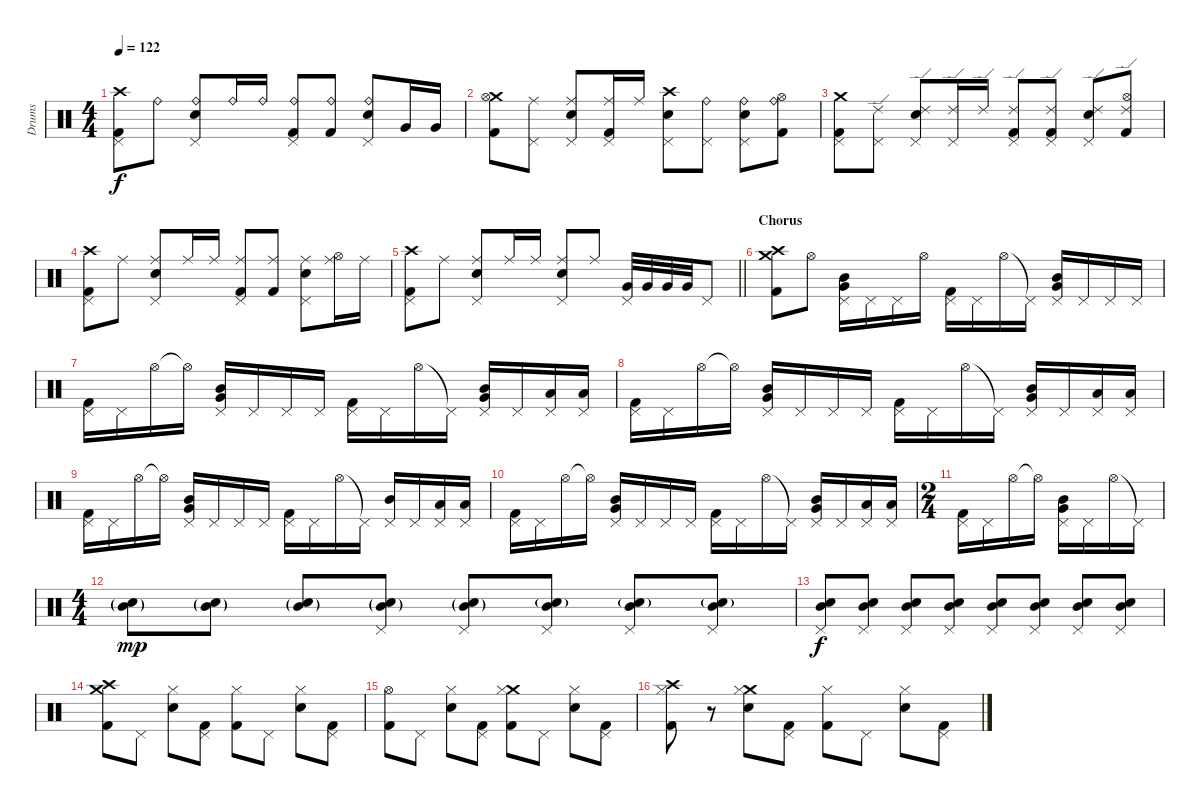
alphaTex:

\track ("Drums" "Drums") {instrument percussion}
\staff {score}
\articulation defaults
\ts (4 4)
\tempo 122
\clef neutral
\ks c
("Crash high (hit)" "Pedal Hi-Hat (hit)" "Kick (hit) 2").8{dy f} "Ride (bell)".8 ("Ride (bell)" "Snare (hit) 2" "Pedal Hi-Hat (hit)").8 "Ride (bell)".16 "Ride (bell)".16 ("Ride (bell)" "Pedal Hi-Hat (hit)" "Kick (hit) 2").8 ("Ride (bell)" "Kick (hit) 2").8 ("Ride (bell)" "Snare (hit) 2" "Pedal Hi-Hat (hit)").8 "Very Low Tom (hit)".16 "Very Low Tom (hit)".16 |
("Crash medium (hit)" "Hi-Hat (open)" "Kick (hit) 2").8 ("Ride (middle)" "Pedal Hi-Hat (hit)").8 ("Ride (middle)" "Snare (hit) 2" "Pedal Hi-Hat (hit)").8 ("Ride (middle)" "Pedal Hi-Hat (hit)" "Kick (hit) 2").16 "Ride (middle)".16 ("Crash high (hit)" "Snare (hit) 2" "Pedal Hi-Hat (hit)").8 ("Ride (bell)" "Pedal Hi-Hat (hit)").8 ("Ride (bell)" "Snare (hit) 2" "Pedal Hi-Hat (hit)").8 ("Ride (bell)" "Hi-Hat (open)" "Kick (hit) 2").8 |
("Crash medium (hit)" "Pedal Hi-Hat (hit)" "Kick (hit) 2").8 ("Ride (edge) 2" "Pedal Hi-Hat (hit)").8 ("Ride (edge) 2" "Snare (hit) 2" "Pedal Hi-Hat (hit)").8 ("Ride (edge) 2" "Pedal Hi-Hat (hit)").16 "Ride (edge) 2".16 ("Ride (edge) 2" "Pedal Hi-Hat (hit)" "Kick (hit) 2").8 ("Ride (edge) 2" "Pedal Hi-Hat (hit)" "Kick (hit) 2").8 ("Ride (edge) 2" "Snare (hit) 2" "Pedal Hi-Hat (hit)").8 ("Ride (edge) 2" "Hi-Hat (open)" "Kick (hit) 2").8 |
("Crash high (hit)" "Pedal Hi-Hat (hit)" "Kick (hit) 2").8 "Ride (middle)".8 ("Ride (middle)" "Snare (hit) 2" "Pedal Hi-Hat (hit)").8 "Ride (middle)".16 "Ride (middle)".16 ("Ride (middle)" "Pedal Hi-Hat (hit)" "Kick (hit) 2").8 ("Ride (middle)" "Kick (hit) 2").8 ("Ride (middle)" "Snare (hit) 2" "Pedal Hi-Hat (hit)").8 ("Ride (middle)" "Hi-Hat (open)").16 "Ride (middle)".16 |
\barLineRight lightlight
("Crash high (hit)" "Pedal Hi-Hat (hit)" "Kick (hit) 2").8 "Ride (middle)".8 ("Ride (middle)" "Snare (hit) 2" "Pedal Hi-Hat (hit)").8 "Ride (middle)".16 "Ride (middle)".16 ("Ride (middle)" "Snare (hit) 2" "Pedal Hi-Hat (hit)").8 "Ride (middle)".8 ("Very Low Tom (hit)" "Pedal Hi-Hat (hit)").32 "Very Low Tom (hit)".32 "Very Low Tom (hit)".32 "Very Low Tom (hit)".32 "Pedal Hi-Hat (hit)".8 |
\section ("" "Chorus")
("Crash medium (hit)" "Crash high (hit)" "Kick (hit) 2").8 "Hi-Hat (open)".8 ("Pedal Hi-Hat (hit)" "Mid Tom (hit)" "Very Low Tom (hit)").16 "Pedal Hi-Hat (hit)".16 "Pedal Hi-Hat (hit)".16 "Hi-Hat (open)".16 ("Pedal Hi-Hat (hit)" "Kick (hit) 2").16 "Pedal Hi-Hat (hit)".16 "Hi-Hat (open)".16 "Pedal Hi-Hat (hit)"{t}.16 ("Pedal Hi-Hat (hit)" "Mid Tom (hit)" "Very Low Tom (hit)").16 "Pedal Hi-Hat (hit)".16 "Pedal Hi-Hat (hit)".16 "Pedal Hi-Hat (hit)".16 |
("Pedal Hi-Hat (hit)" "Kick (hit) 2").16 "Pedal Hi-Hat (hit)".16 "Hi-Hat (open)".16 "Hi-Hat (open)"{t}.16 ("Pedal Hi-Hat (hit)" "Mid Tom (hit)" "Very Low Tom (hit)").16 "Pedal Hi-Hat (hit)".16 "Pedal Hi-Hat (hit)".16 "Pedal Hi-Hat (hit)".16 ("Pedal Hi-Hat (hit)" "Kick (hit) 2").16 "Pedal Hi-Hat (hit)".16 "Hi-Hat (open)".16 "Pedal Hi-Hat (hit)"{t}.16 ("Pedal Hi-Hat (hit)" "Mid Tom (hit)" "Very Low Tom (hit)").16 "Pedal Hi-Hat (hit)".16 ("Pedal Hi-Hat (hit)" "Low Floor Tom (hit)").16 ("Pedal Hi-Hat (hit)" "Low Floor Tom (hit)").16 |
("Pedal Hi-Hat (hit)" "Kick (hit) 2").16 "Pedal Hi-Hat (hit)".16 "Hi-Hat (open)".16 "Hi-Hat (open)"{t}.16 ("Pedal Hi-Hat (hit)" "Mid Tom (hit)" "Very Low Tom (hit)").16 "Pedal Hi-Hat (hit)".16 "Pedal Hi-Hat (hit)".16 "Pedal Hi-Hat (hit)".16 ("Pedal Hi-Hat (hit)" "Kick (hit) 2").16 "Pedal Hi-Hat (hit)".16 "Hi-Hat (open)".16 "Pedal Hi-Hat (hit)"{t}.16 ("Pedal Hi-Hat (hit)" "Mid Tom (hit)" "Very Low Tom (hit)").16 "Pedal Hi-Hat (hit)".16 ("Pedal Hi-Hat (hit)" "Low Floor Tom (hit)").16 ("Pedal Hi-Hat (hit)" "Low Floor Tom (hit)").16 |
("Pedal Hi-Hat (hit)" "Kick (hit) 2").16 "Pedal Hi-Hat (hit)".16 "Hi-Hat (open)".16 "Hi-Hat (open)"{t}.16 ("Pedal Hi-Hat (hit)" "Mid Tom (hit)" "Very Low Tom (hit)").16 "Pedal Hi-Hat (hit)".16 "Pedal Hi-Hat (hit)".16 "Pedal Hi-Hat (hit)".16 ("Pedal Hi-Hat (hit)" "Kick (hit) 2").16 "Pedal Hi-Hat (hit)".16 "Hi-Hat (open)".16 "Pedal Hi-Hat (hit)"{t}.16 ("Pedal Hi-Hat (hit)" "Mid Tom (hit)").16 "Pedal Hi-Hat (hit)".16 ("Pedal Hi-Hat (hit)" "Low Floor Tom (hit)").16 ("Pedal Hi-Hat (hit)" "Low Floor Tom (hit)").16 |
("Pedal Hi-Hat (hit)" "Kick (hit) 2").16 "Pedal Hi-Hat (hit)".16 "Hi-Hat (open)".16 "Hi-Hat (open)"{t}.16 ("Pedal Hi-Hat (hit)" "Mid Tom (hit)" "Very Low Tom (hit)").16 "Pedal Hi-Hat (hit)".16 "Pedal Hi-Hat (hit)".16 "Pedal Hi-Hat (hit)".16 ("Pedal Hi-Hat (hit)" "Kick (hit) 2").16 "Pedal Hi-Hat (hit)".16 "Hi-Hat (open)".16 "Pedal Hi-Hat (hit)"{t}.16 ("Pedal Hi-Hat (hit)" "Mid Tom (hit)" "Very Low Tom (hit)").16 "Pedal Hi-Hat (hit)".16 ("Pedal Hi-Hat (hit)" "Low Floor Tom (hit)").16 ("Pedal Hi-Hat (hit)" "Low Floor Tom (hit)").16 |
\ts (2 4)
("Pedal Hi-Hat (hit)" "Kick (hit) 2").16 "Pedal Hi-Hat (hit)".16 "Hi-Hat (open)".16 "Hi-Hat (open)"{t}.16 ("Pedal Hi-Hat (hit)" "Mid Tom (hit)" "Very Low Tom (hit)").16 "Pedal Hi-Hat (hit)".16 "Hi-Hat (open)".16 "Pedal Hi-Hat (hit)"{t}.16 |
\ts (4 4)
("Mid Tom (hit)"{g} "Snare (hit) 2"{g}).8{dy mp} ("Mid Tom (hit)"{g} "Snare (hit) 2"{g}).8 ("Mid Tom (hit)"{g} "Snare (hit) 2"{g}).8 ("Mid Tom (hit)"{g} "Snare (hit) 2"{g} "Pedal Hi-Hat (hit)").8 ("Mid Tom (hit)"{g} "Snare (hit) 2"{g} "Pedal Hi-Hat (hit)").8 ("Mid Tom (hit)" "Snare (hit) 2"{g} "Pedal Hi-Hat (hit)").8 ("Mid Tom (hit)" "Snare (hit) 2"{g} "Pedal Hi-Hat (hit)").8 ("Mid Tom (hit)" "Snare (hit) 2"{g} "Pedal Hi-Hat (hit)").8 |
("Mid Tom (hit)" "Snare (hit) 2" "Pedal Hi-Hat (hit)").8{dy f} ("Mid Tom (hit)" "Snare (hit) 2" "Pedal Hi-Hat (hit)").8 ("Mid Tom (hit)" "Snare (hit) 2" "Pedal Hi-Hat (hit)").8 ("Mid Tom (hit)" "Snare (hit) 2" "Pedal Hi-Hat (hit)").8 ("Mid Tom (hit)" "Snare (hit) 2" "Pedal Hi-Hat (hit)").8 ("Mid Tom (hit)" "Snare (hit) 2" "Pedal Hi-Hat (hit)").8 ("Mid Tom (hit)" "Snare (hit) 2" "Pedal Hi-Hat (hit)").8 ("Mid Tom (hit)" "Snare (hit) 2" "Pedal Hi-Hat (hit)").8 |
("Crash medium (hit)" "Crash high (hit)" "Kick (hit) 2").8 "Pedal Hi-Hat (hit)".8 ("Snare (hit) 2" "Hi-Hat (closed)").8 ("Pedal Hi-Hat (hit)" "Kick (hit) 2").8 ("Hi-Hat (closed)" "Kick (hit) 2").8 "Pedal Hi-Hat (hit)".8 ("Snare (hit) 2" "Hi-Hat (closed)").8 ("Pedal Hi-Hat (hit)" "Kick (hit) 2").8 |
("Hi-Hat (open)" "Kick (hit) 2").8 "Pedal Hi-Hat (hit)".8 ("Snare (hit) 2" "Hi-Hat (closed)").8 ("Pedal Hi-Hat (hit)" "Kick (hit) 2").8 ("Crash medium (hit)" "Hi-Hat (closed)" "Kick (hit) 2").8 "Pedal Hi-Hat (hit)".8 ("Snare (hit) 2" "Hi-Hat (closed)").8 ("Pedal Hi-Hat (hit)" "Kick (hit) 2").8 |
("Crash high (hit)" "Hi-Hat (closed)" "Kick (hit) 2").8 r.8 ("Crash medium (hit)" "Snare (hit) 2" "Hi-Hat (closed)").8 ("Pedal Hi-Hat (hit)" "Kick (hit) 2").8 ("Hi-Hat (closed)" "Kick (hit) 2").8 "Pedal Hi-Hat (hit)".8 ("Snare (hit) 2" "Hi-Hat (closed)").8 ("Pedal Hi-Hat (hit)" "Kick (hit) 2").8
